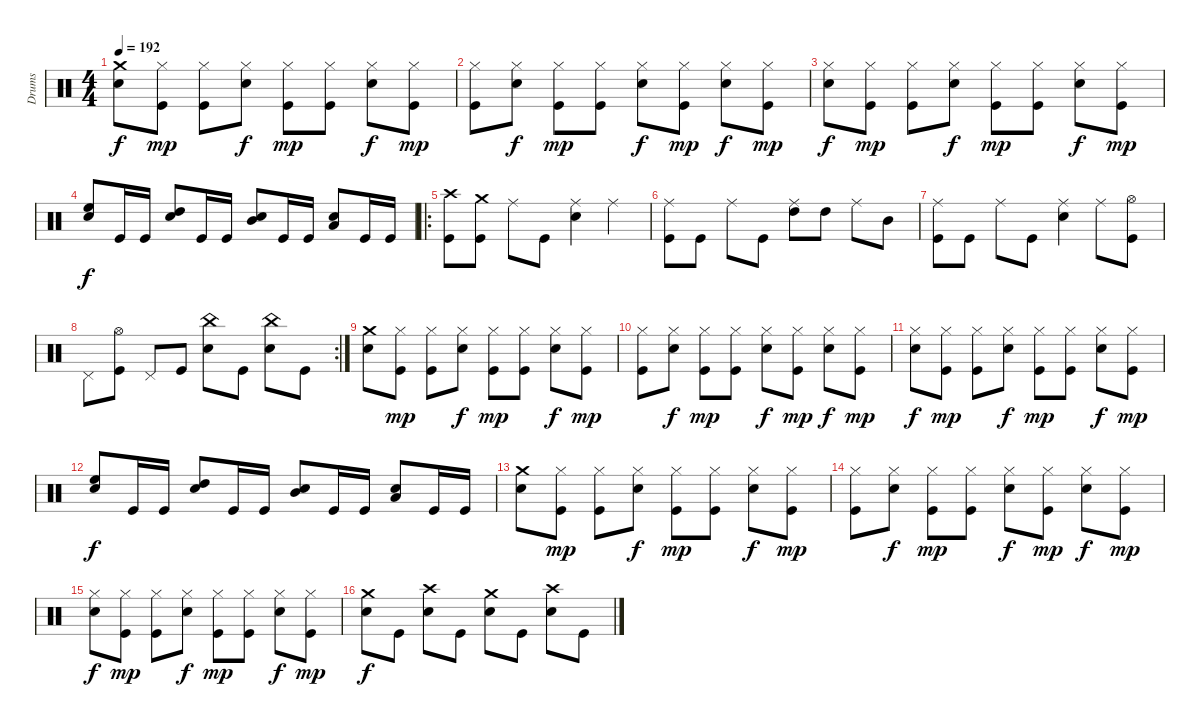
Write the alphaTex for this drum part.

\track ("Drums" "Drums") {instrument percussion}
\staff {score}
\articulation defaults
\ts (4 4)
\tempo 192
\clef neutral
\ks c
("Crash medium (hit)" "Electric Snare (hit)").8{dy f} ("Hi-Hat (closed)" "Kick (hit)").8{dy mp} ("Hi-Hat (closed)" "Kick (hit)").8 ("Hi-Hat (closed)" "Electric Snare (hit)").8{dy f} ("Hi-Hat (closed)" "Kick (hit)").8{dy mp} ("Hi-Hat (closed)" "Kick (hit)").8 ("Hi-Hat (closed)" "Electric Snare (hit)").8{dy f} ("Hi-Hat (closed)" "Kick (hit)").8{dy mp} |
("Hi-Hat (closed)" "Kick (hit)").8 ("Hi-Hat (closed)" "Electric Snare (hit)").8{dy f} ("Hi-Hat (closed)" "Kick (hit)").8{dy mp} ("Hi-Hat (closed)" "Kick (hit)").8 ("Hi-Hat (closed)" "Electric Snare (hit)").8{dy f} ("Hi-Hat (closed)" "Kick (hit)").8{dy mp} ("Hi-Hat (closed)" "Electric Snare (hit)").8{dy f} ("Hi-Hat (closed)" "Kick (hit)").8{dy mp} |
("Hi-Hat (closed)" "Electric Snare (hit)").8{dy f} ("Hi-Hat (closed)" "Kick (hit)").8{dy mp} ("Hi-Hat (closed)" "Kick (hit)").8 ("Hi-Hat (closed)" "Electric Snare (hit)").8{dy f} ("Hi-Hat (closed)" "Kick (hit)").8{dy mp} ("Hi-Hat (closed)" "Kick (hit)").8 ("Hi-Hat (closed)" "Electric Snare (hit)").8{dy f} ("Hi-Hat (closed)" "Kick (hit)").8{dy mp} |
("High Floor Tom (hit)" "Electric Snare (hit)").8{dy f} "Kick (hit)".16 "Kick (hit)".16 ("High Tom (hit)" "Electric Snare (hit)").8 "Kick (hit)".16 "Kick (hit)".16 ("Electric Snare (hit)" "Mid Tom (hit)").8 "Kick (hit)".16 "Kick (hit)".16 ("Electric Snare (hit)" "Low Tom (hit)").8 "Kick (hit)".16 "Kick (hit)".16 |
\ro
("Crash high (hit)" "Kick (hit)").8 ("Crash medium (hit)" "Kick (hit)").8 "Ride (middle)".8 "Kick (hit)".8 ("Ride (middle)" "Electric Snare (hit)").4 "Ride (middle)".4 |
("Ride (middle)" "Kick (hit)").8 "Kick (hit)".8 "Ride (middle)".8 "Kick (hit)".8 ("Ride (middle)" "High Tom (hit)").8 "High Tom (hit)".8 "Ride (middle)".8 "Mid Tom (hit)".8 |
("Ride (middle)" "Kick (hit)").8 "Kick (hit)".8 "Ride (middle)".8 "Kick (hit)".8 ("Ride (middle)" "Electric Snare (hit)").4 "Ride (middle)".8 ("Hi-Hat (open)" "Kick (hit)").8 |
\rc 2 "Pedal Hi-Hat (hit)".8
("Hi-Hat (open)" "Kick (hit)").8 "Pedal Hi-Hat (hit)".8 "Kick (hit)".8 ("China (hit)" "Electric Snare (hit)").8 "Kick (hit)".8 ("China (hit)" "Electric Snare (hit)").8 "Kick (hit)".8 |
("Crash medium (hit)" "Electric Snare (hit)").8 ("Hi-Hat (closed)" "Kick (hit)").8{dy mp} ("Hi-Hat (closed)" "Kick (hit)").8 ("Hi-Hat (closed)" "Electric Snare (hit)").8{dy f} ("Hi-Hat (closed)" "Kick (hit)").8{dy mp} ("Hi-Hat (closed)" "Kick (hit)").8 ("Hi-Hat (closed)" "Electric Snare (hit)").8{dy f} ("Hi-Hat (closed)" "Kick (hit)").8{dy mp} |
("Hi-Hat (closed)" "Kick (hit)").8 ("Hi-Hat (closed)" "Electric Snare (hit)").8{dy f} ("Hi-Hat (closed)" "Kick (hit)").8{dy mp} ("Hi-Hat (closed)" "Kick (hit)").8 ("Hi-Hat (closed)" "Electric Snare (hit)").8{dy f} ("Hi-Hat (closed)" "Kick (hit)").8{dy mp} ("Hi-Hat (closed)" "Electric Snare (hit)").8{dy f} ("Hi-Hat (closed)" "Kick (hit)").8{dy mp} |
("Hi-Hat (closed)" "Electric Snare (hit)").8{dy f} ("Hi-Hat (closed)" "Kick (hit)").8{dy mp} ("Hi-Hat (closed)" "Kick (hit)").8 ("Hi-Hat (closed)" "Electric Snare (hit)").8{dy f} ("Hi-Hat (closed)" "Kick (hit)").8{dy mp} ("Hi-Hat (closed)" "Kick (hit)").8 ("Hi-Hat (closed)" "Electric Snare (hit)").8{dy f} ("Hi-Hat (closed)" "Kick (hit)").8{dy mp} |
("High Floor Tom (hit)" "Electric Snare (hit)").8{dy f} "Kick (hit)".16 "Kick (hit)".16 ("High Tom (hit)" "Electric Snare (hit)").8 "Kick (hit)".16 "Kick (hit)".16 ("Electric Snare (hit)" "Mid Tom (hit)").8 "Kick (hit)".16 "Kick (hit)".16 ("Electric Snare (hit)" "Low Tom (hit)").8 "Kick (hit)".16 "Kick (hit)".16 |
("Crash medium (hit)" "Electric Snare (hit)").8 ("Hi-Hat (closed)" "Kick (hit)").8{dy mp} ("Hi-Hat (closed)" "Kick (hit)").8 ("Hi-Hat (closed)" "Electric Snare (hit)").8{dy f} ("Hi-Hat (closed)" "Kick (hit)").8{dy mp} ("Hi-Hat (closed)" "Kick (hit)").8 ("Hi-Hat (closed)" "Electric Snare (hit)").8{dy f} ("Hi-Hat (closed)" "Kick (hit)").8{dy mp} |
("Hi-Hat (closed)" "Kick (hit)").8 ("Hi-Hat (closed)" "Electric Snare (hit)").8{dy f} ("Hi-Hat (closed)" "Kick (hit)").8{dy mp} ("Hi-Hat (closed)" "Kick (hit)").8 ("Hi-Hat (closed)" "Electric Snare (hit)").8{dy f} ("Hi-Hat (closed)" "Kick (hit)").8{dy mp} ("Hi-Hat (closed)" "Electric Snare (hit)").8{dy f} ("Hi-Hat (closed)" "Kick (hit)").8{dy mp} |
("Hi-Hat (closed)" "Electric Snare (hit)").8{dy f} ("Hi-Hat (closed)" "Kick (hit)").8{dy mp} ("Hi-Hat (closed)" "Kick (hit)").8 ("Hi-Hat (closed)" "Electric Snare (hit)").8{dy f} ("Hi-Hat (closed)" "Kick (hit)").8{dy mp} ("Hi-Hat (closed)" "Kick (hit)").8 ("Hi-Hat (closed)" "Electric Snare (hit)").8{dy f} ("Hi-Hat (closed)" "Kick (hit)").8{dy mp} |
("Crash medium (hit)" "Electric Snare (hit)").8{dy f} "Kick (hit)".8 ("Crash high (hit)" "Electric Snare (hit)").8 "Kick (hit)".8 ("Crash medium (hit)" "Electric Snare (hit)").8 "Kick (hit)".8 ("Crash high (hit)" "Electric Snare (hit)").8 "Kick (hit)".8
